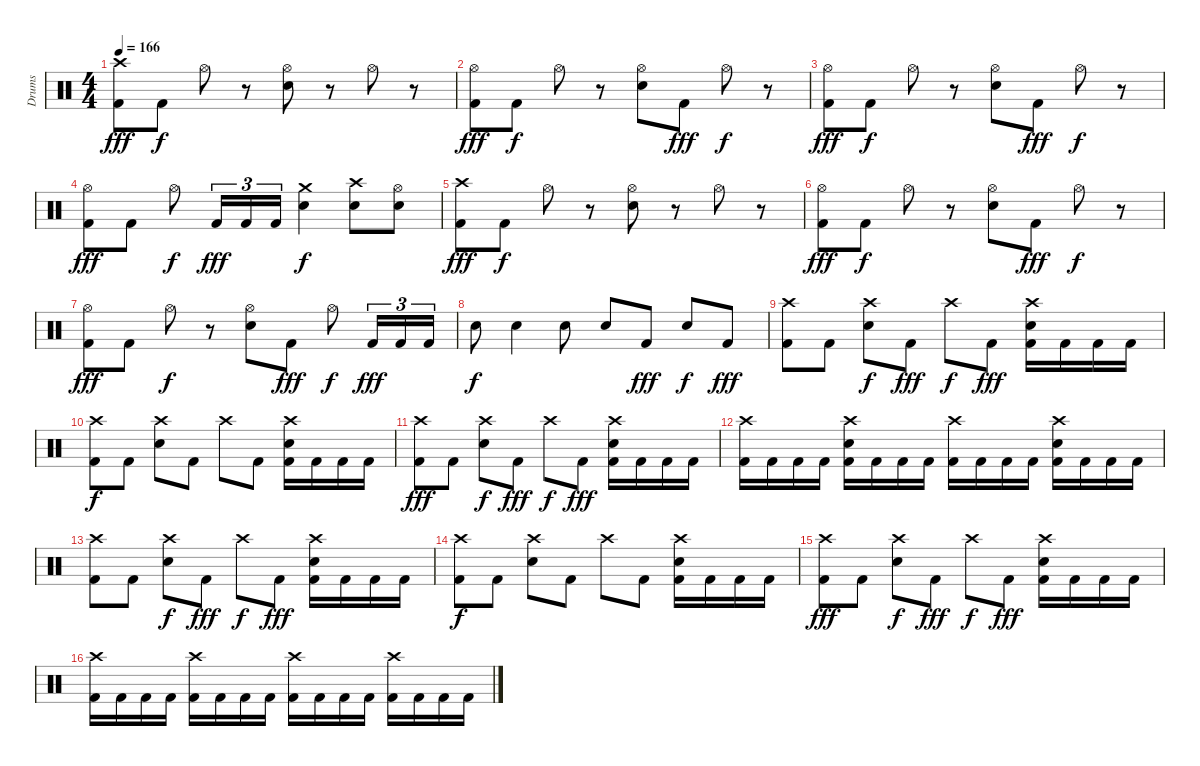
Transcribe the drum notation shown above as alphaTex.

\track ("Drums" "Drums") {instrument percussion}
\staff {score}
\articulation defaults
\ts (4 4)
\tempo 166
\clef neutral
\ks c
("Crash high (hit)" "Kick (hit) 2").8{dy fff} "Kick (hit) 2".8{dy f} "Hi-Hat (open)".8 r.8 ("Hi-Hat (open)" "Snare (hit) 2").8 r.8 "Hi-Hat (open)".8 r.8 |
("Hi-Hat (open)" "Kick (hit) 2").8{dy fff} "Kick (hit) 2".8{dy f} "Hi-Hat (open)".8 r.8 ("Hi-Hat (open)" "Snare (hit) 2").8 "Kick (hit) 2".8{dy fff} "Hi-Hat (open)".8{dy f} r.8 |
("Hi-Hat (open)" "Kick (hit) 2").8{dy fff} "Kick (hit) 2".8{dy f} "Hi-Hat (open)".8 r.8 ("Hi-Hat (open)" "Snare (hit) 2").8 "Kick (hit) 2".8{dy fff} "Hi-Hat (open)".8{dy f} r.8 |
("Hi-Hat (open)" "Kick (hit) 2").8{dy fff} "Kick (hit) 2".8 "Hi-Hat (open)".8{dy f} "Kick (hit) 2".16{tu (3 2) dy fff} "Kick (hit) 2".16{tu (3 2)} "Kick (hit) 2".16{tu (3 2)} ("Crash medium (hit)" "Snare (hit) 2").4{dy f} ("Crash high (hit)" "Snare (hit) 2").8 ("Hi-Hat (open)" "Snare (hit) 2").8 |
("Crash high (hit)" "Kick (hit) 2").8{dy fff} "Kick (hit) 2".8{dy f} "Hi-Hat (open)".8 r.8 ("Hi-Hat (open)" "Snare (hit) 2").8 r.8 "Hi-Hat (open)".8 r.8 |
("Hi-Hat (open)" "Kick (hit) 2").8{dy fff} "Kick (hit) 2".8{dy f} "Hi-Hat (open)".8 r.8 ("Hi-Hat (open)" "Snare (hit) 2").8 "Kick (hit) 2".8{dy fff} "Hi-Hat (open)".8{dy f} r.8 |
("Hi-Hat (open)" "Kick (hit) 2").8{dy fff} "Kick (hit) 2".8 "Hi-Hat (open)".8{dy f} r.8 ("Hi-Hat (open)" "Snare (hit) 2").8 "Kick (hit) 2".8{dy fff} "Hi-Hat (open)".8{dy f} "Kick (hit) 2".16{tu (3 2) dy fff} "Kick (hit) 2".16{tu (3 2)} "Kick (hit) 2".16{tu (3 2)} |
"Snare (hit) 2".8{dy f} "Snare (hit) 2".4 "Snare (hit) 2".8 "Snare (hit) 2".8 "Kick (hit) 2".8{dy fff} "Snare (hit) 2".8{dy f} "Kick (hit) 2".8{dy fff} |
("Crash high (hit)" "Kick (hit) 2").8 "Kick (hit) 2".8 ("Crash high (hit)" "Snare (hit) 2").8{dy f} "Kick (hit) 2".8{dy fff} "Crash high (hit)".8{dy f} "Kick (hit) 2".8{dy fff} ("Crash high (hit)" "Snare (hit) 2" "Kick (hit) 2").16 "Kick (hit) 2".16 "Kick (hit) 2".16 "Kick (hit) 2".16 |
("Crash high (hit)" "Kick (hit) 2").8{dy f} "Kick (hit) 2".8 ("Crash high (hit)" "Snare (hit) 2").8 "Kick (hit) 2".8 "Crash high (hit)".8 "Kick (hit) 2".8 ("Crash high (hit)" "Snare (hit) 2" "Kick (hit) 2").16 "Kick (hit) 2".16 "Kick (hit) 2".16 "Kick (hit) 2".16 |
("Crash high (hit)" "Kick (hit) 2").8{dy fff} "Kick (hit) 2".8 ("Crash high (hit)" "Snare (hit) 2").8{dy f} "Kick (hit) 2".8{dy fff} "Crash high (hit)".8{dy f} "Kick (hit) 2".8{dy fff} ("Crash high (hit)" "Snare (hit) 2" "Kick (hit) 2").16 "Kick (hit) 2".16 "Kick (hit) 2".16 "Kick (hit) 2".16 |
("Crash high (hit)" "Kick (hit) 2").16 "Kick (hit) 2".16 "Kick (hit) 2".16 "Kick (hit) 2".16 ("Crash high (hit)" "Snare (hit) 2" "Kick (hit) 2").16 "Kick (hit) 2".16 "Kick (hit) 2".16 "Kick (hit) 2".16 ("Crash high (hit)" "Kick (hit) 2").16 "Kick (hit) 2".16 "Kick (hit) 2".16 "Kick (hit) 2".16 ("Crash high (hit)" "Snare (hit) 2" "Kick (hit) 2").16 "Kick (hit) 2".16 "Kick (hit) 2".16 "Kick (hit) 2".16 |
("Crash high (hit)" "Kick (hit) 2").8 "Kick (hit) 2".8 ("Crash high (hit)" "Snare (hit) 2").8{dy f} "Kick (hit) 2".8{dy fff} "Crash high (hit)".8{dy f} "Kick (hit) 2".8{dy fff} ("Crash high (hit)" "Snare (hit) 2" "Kick (hit) 2").16 "Kick (hit) 2".16 "Kick (hit) 2".16 "Kick (hit) 2".16 |
("Crash high (hit)" "Kick (hit) 2").8{dy f} "Kick (hit) 2".8 ("Crash high (hit)" "Snare (hit) 2").8 "Kick (hit) 2".8 "Crash high (hit)".8 "Kick (hit) 2".8 ("Crash high (hit)" "Snare (hit) 2" "Kick (hit) 2").16 "Kick (hit) 2".16 "Kick (hit) 2".16 "Kick (hit) 2".16 |
("Crash high (hit)" "Kick (hit) 2").8{dy fff} "Kick (hit) 2".8 ("Crash high (hit)" "Snare (hit) 2").8{dy f} "Kick (hit) 2".8{dy fff} "Crash high (hit)".8{dy f} "Kick (hit) 2".8{dy fff} ("Crash high (hit)" "Snare (hit) 2" "Kick (hit) 2").16 "Kick (hit) 2".16 "Kick (hit) 2".16 "Kick (hit) 2".16 |
("Crash high (hit)" "Kick (hit) 2").16 "Kick (hit) 2".16 "Kick (hit) 2".16 "Kick (hit) 2".16 ("Crash high (hit)" "Kick (hit) 2").16 "Kick (hit) 2".16 "Kick (hit) 2".16 "Kick (hit) 2".16 ("Crash high (hit)" "Kick (hit) 2").16 "Kick (hit) 2".16 "Kick (hit) 2".16 "Kick (hit) 2".16 ("Crash high (hit)" "Kick (hit) 2").16 "Kick (hit) 2".16 "Kick (hit) 2".16 "Kick (hit) 2".16
